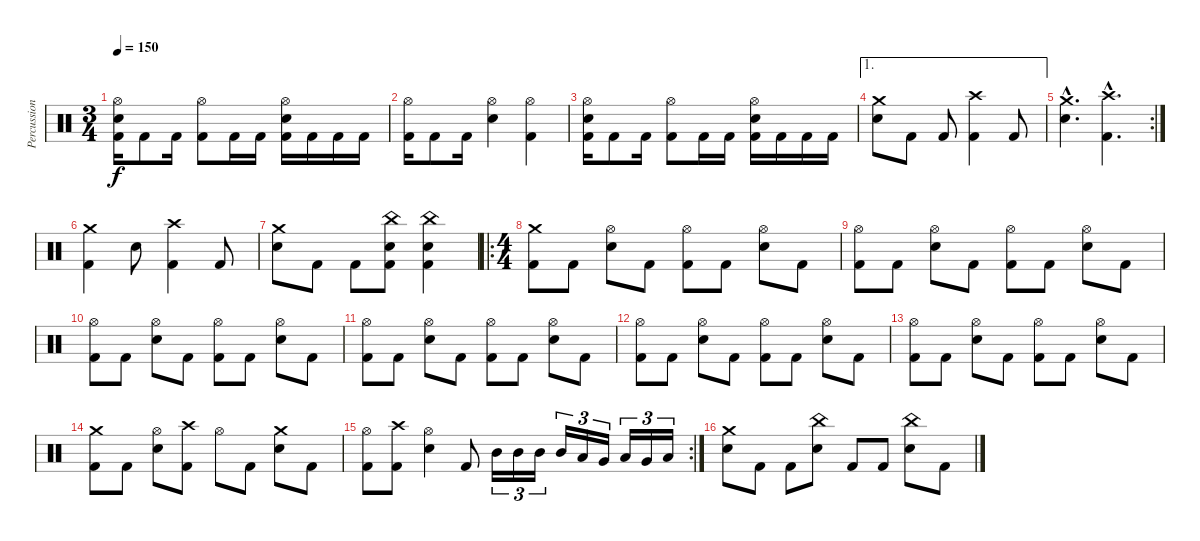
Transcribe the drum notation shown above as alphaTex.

\track ("Percussion" "Percussion") {instrument percussion}
\staff {score}
\articulation defaults
\ts (3 4)
\tempo 150
\clef neutral
\ks aminor
("Hi-Hat (open)" "Electric Snare (hit)" "Kick (hit) 2").16{dy f} "Kick (hit) 2".8 "Kick (hit) 2".16 ("Hi-Hat (open)" "Kick (hit) 2").8 "Kick (hit) 2".16 "Kick (hit) 2".16 ("Hi-Hat (open)" "Electric Snare (hit)" "Kick (hit) 2").16 "Kick (hit) 2".16 "Kick (hit) 2".16 "Kick (hit) 2".16 |
("Hi-Hat (open)" "Kick (hit) 2").16 "Kick (hit) 2".8 "Kick (hit) 2".16 ("Hi-Hat (open)" "Electric Snare (hit)").4 ("Hi-Hat (open)" "Kick (hit) 2").4 |
("Hi-Hat (open)" "Electric Snare (hit)" "Kick (hit) 2").16 "Kick (hit) 2".8 "Kick (hit) 2".16 ("Hi-Hat (open)" "Kick (hit) 2").8 "Kick (hit) 2".16 "Kick (hit) 2".16 ("Hi-Hat (open)" "Electric Snare (hit)" "Kick (hit) 2").16 "Kick (hit) 2".16 "Kick (hit) 2".16 "Kick (hit) 2".16 |
\ae 1
("Crash medium (hit)" "Electric Snare (hit)").8 "Kick (hit) 2".8 "Kick (hit) 2".8 ("Crash high (hit)" "Kick (hit) 2").4 "Kick (hit) 2".8 |
\rc 2
("Crash medium (hit)"{hac} "Electric Snare (hit)"{hac}).4{d} ("Crash high (hit)"{hac} "Kick (hit) 2"{hac}).4{d} |
("Crash medium (hit)" "Kick (hit) 2").4 "Electric Snare (hit)".8 ("Crash high (hit)" "Kick (hit) 2").4 "Kick (hit) 2".8 |
("Crash medium (hit)" "Electric Snare (hit)").8 "Kick (hit) 2".8 "Kick (hit) 2".8 ("China (hit)" "Electric Snare (hit)" "Kick (hit) 2").8 ("China (hit)" "Electric Snare (hit)" "Kick (hit) 2").4 |
\ro
\ts (4 4)
("Crash medium (hit)" "Kick (hit) 2").8 "Kick (hit) 2".8 ("Hi-Hat (open)" "Electric Snare (hit)").8 "Kick (hit) 2".8 ("Hi-Hat (open)" "Kick (hit) 2").8 "Kick (hit) 2".8 ("Hi-Hat (open)" "Electric Snare (hit)").8 "Kick (hit) 2".8 |
("Hi-Hat (open)" "Kick (hit) 2").8 "Kick (hit) 2".8 ("Hi-Hat (open)" "Electric Snare (hit)").8 "Kick (hit) 2".8 ("Hi-Hat (open)" "Kick (hit) 2").8 "Kick (hit) 2".8 ("Hi-Hat (open)" "Electric Snare (hit)").8 "Kick (hit) 2".8 |
("Hi-Hat (open)" "Kick (hit) 2").8 "Kick (hit) 2".8 ("Hi-Hat (open)" "Electric Snare (hit)").8 "Kick (hit) 2".8 ("Hi-Hat (open)" "Kick (hit) 2").8 "Kick (hit) 2".8 ("Hi-Hat (open)" "Electric Snare (hit)").8 "Kick (hit) 2".8 |
("Hi-Hat (open)" "Kick (hit) 2").8 "Kick (hit) 2".8 ("Hi-Hat (open)" "Electric Snare (hit)").8 "Kick (hit) 2".8 ("Hi-Hat (open)" "Kick (hit) 2").8 "Kick (hit) 2".8 ("Hi-Hat (open)" "Electric Snare (hit)").8 "Kick (hit) 2".8 |
("Hi-Hat (open)" "Kick (hit) 2").8 "Kick (hit) 2".8 ("Hi-Hat (open)" "Electric Snare (hit)").8 "Kick (hit) 2".8 ("Hi-Hat (open)" "Kick (hit) 2").8 "Kick (hit) 2".8 ("Hi-Hat (open)" "Electric Snare (hit)").8 "Kick (hit) 2".8 |
("Hi-Hat (open)" "Kick (hit) 2").8 "Kick (hit) 2".8 ("Hi-Hat (open)" "Electric Snare (hit)").8 "Kick (hit) 2".8 ("Hi-Hat (open)" "Kick (hit) 2").8 "Kick (hit) 2".8 ("Hi-Hat (open)" "Electric Snare (hit)").8 "Kick (hit) 2".8 |
("Crash medium (hit)" "Kick (hit) 2").8 "Kick (hit) 2".8 ("Hi-Hat (open)" "Electric Snare (hit)").8 ("Crash high (hit)" "Kick (hit) 2").8 "Hi-Hat (open)".8 "Kick (hit) 2".8 ("Crash medium (hit)" "Electric Snare (hit)").8 "Kick (hit) 2".8 |
\rc 2
("Hi-Hat (open)" "Kick (hit) 2").8 ("Crash high (hit)" "Kick (hit) 2").8 ("Hi-Hat (open)" "Electric Snare (hit)").4 "Kick (hit) 2".8 "Mid Tom (hit)".16{tu (3 2)} "Mid Tom (hit)".16{tu (3 2)} "Mid Tom (hit)".16{tu (3 2)} "Mid Tom (hit)".16{tu (3 2)} "Low Tom (hit)".16{tu (3 2)} "Very Low Tom (hit)".16{tu (3 2)} "Low Tom (hit)".16{tu (3 2)} "Very Low Tom (hit)".16{tu (3 2)} "Low Floor Tom (hit)".16{tu (3 2)} |
("Crash medium (hit)" "Electric Snare (hit)").8 "Kick (hit) 2".8 "Kick (hit) 2".8 ("China (hit)" "Electric Snare (hit)").8 "Kick (hit) 2".8 "Kick (hit) 2".8 ("China (hit)" "Electric Snare (hit)").8 "Kick (hit) 2".8
